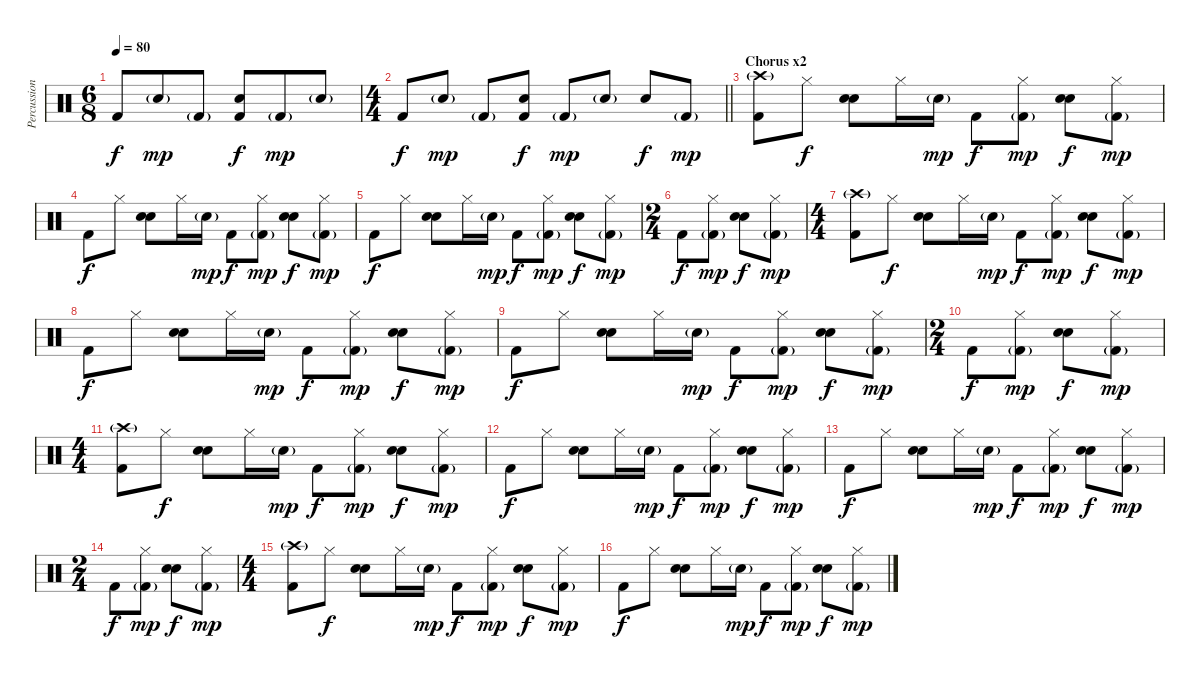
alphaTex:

\track ("Percussion" "Percussion") {instrument percussion}
\staff {score}
\articulation defaults
\ts (6 8)
\tempo 80
\clef neutral
\ks c "Kick (hit) 2".8{dy f} "Snare (hit) 2"{g}.8{dy mp} "Kick (hit) 2"{g}.8
("Snare (hit) 2" "Kick (hit) 2").8{dy f} "Kick (hit) 2"{g}.8{dy mp} "Snare (hit) 2"{g}.8 |
\ts (4 4)
\barLineRight lightlight "Kick (hit) 2".8{dy f} "Snare (hit) 2"{g}.8{dy mp} "Kick (hit) 2"{g}.8
("Snare (hit) 2" "Kick (hit) 2").8{dy f} "Kick (hit) 2"{g}.8{dy mp} "Snare (hit) 2"{g}.8 "Snare (hit) 2".8{dy f} "Kick (hit) 2"{g}.8{dy mp} |
\section ("" "Chorus x2")
("Crash high (hit)"{g} "Kick (hit) 2").8 "Hi-Hat (closed)".8{dy f} ("Snare (hit) 2" "Hand Clap (hit)").8 "Hi-Hat (closed)".16 "Snare (hit) 2"{g}.16{dy mp} "Kick (hit) 2".8{dy f} ("Hi-Hat (closed)" "Kick (hit) 2"{g}).8{dy mp} ("Snare (hit) 2" "Hand Clap (hit)").8{dy f} ("Hi-Hat (closed)" "Kick (hit) 2"{g}).8{dy mp} |
"Kick (hit) 2".8{dy f} "Hi-Hat (closed)".8 ("Snare (hit) 2" "Hand Clap (hit)").8 "Hi-Hat (closed)".16 "Snare (hit) 2"{g}.16{dy mp} "Kick (hit) 2".8{dy f} ("Hi-Hat (closed)" "Kick (hit) 2"{g}).8{dy mp} ("Snare (hit) 2" "Hand Clap (hit)").8{dy f} ("Hi-Hat (closed)" "Kick (hit) 2"{g}).8{dy mp} |
"Kick (hit) 2".8{dy f} "Hi-Hat (closed)".8 ("Snare (hit) 2" "Hand Clap (hit)").8 "Hi-Hat (closed)".16 "Snare (hit) 2"{g}.16{dy mp} "Kick (hit) 2".8{dy f} ("Hi-Hat (closed)" "Kick (hit) 2"{g}).8{dy mp} ("Snare (hit) 2" "Hand Clap (hit)").8{dy f} ("Hi-Hat (closed)" "Kick (hit) 2"{g}).8{dy mp} |
\ts (2 4)
"Kick (hit) 2".8{dy f} ("Hi-Hat (closed)" "Kick (hit) 2"{g}).8{dy mp} ("Snare (hit) 2" "Hand Clap (hit)").8{dy f} ("Hi-Hat (closed)" "Kick (hit) 2"{g}).8{dy mp} |
\ts (4 4)
("Crash high (hit)"{g} "Kick (hit) 2").8 "Hi-Hat (closed)".8{dy f} ("Snare (hit) 2" "Hand Clap (hit)").8 "Hi-Hat (closed)".16 "Snare (hit) 2"{g}.16{dy mp} "Kick (hit) 2".8{dy f} ("Hi-Hat (closed)" "Kick (hit) 2"{g}).8{dy mp} ("Snare (hit) 2" "Hand Clap (hit)").8{dy f} ("Hi-Hat (closed)" "Kick (hit) 2"{g}).8{dy mp} |
"Kick (hit) 2".8{dy f} "Hi-Hat (closed)".8 ("Snare (hit) 2" "Hand Clap (hit)").8 "Hi-Hat (closed)".16 "Snare (hit) 2"{g}.16{dy mp} "Kick (hit) 2".8{dy f} ("Hi-Hat (closed)" "Kick (hit) 2"{g}).8{dy mp} ("Snare (hit) 2" "Hand Clap (hit)").8{dy f} ("Hi-Hat (closed)" "Kick (hit) 2"{g}).8{dy mp} |
"Kick (hit) 2".8{dy f} "Hi-Hat (closed)".8 ("Snare (hit) 2" "Hand Clap (hit)").8 "Hi-Hat (closed)".16 "Snare (hit) 2"{g}.16{dy mp} "Kick (hit) 2".8{dy f} ("Hi-Hat (closed)" "Kick (hit) 2"{g}).8{dy mp} ("Snare (hit) 2" "Hand Clap (hit)").8{dy f} ("Hi-Hat (closed)" "Kick (hit) 2"{g}).8{dy mp} |
\ts (2 4)
"Kick (hit) 2".8{dy f} ("Hi-Hat (closed)" "Kick (hit) 2"{g}).8{dy mp} ("Snare (hit) 2" "Hand Clap (hit)").8{dy f} ("Hi-Hat (closed)" "Kick (hit) 2"{g}).8{dy mp} |
\ts (4 4)
("Crash high (hit)"{g} "Kick (hit) 2").8 "Hi-Hat (closed)".8{dy f} ("Snare (hit) 2" "Hand Clap (hit)").8 "Hi-Hat (closed)".16 "Snare (hit) 2"{g}.16{dy mp} "Kick (hit) 2".8{dy f} ("Hi-Hat (closed)" "Kick (hit) 2"{g}).8{dy mp} ("Snare (hit) 2" "Hand Clap (hit)").8{dy f} ("Hi-Hat (closed)" "Kick (hit) 2"{g}).8{dy mp} |
"Kick (hit) 2".8{dy f} "Hi-Hat (closed)".8 ("Snare (hit) 2" "Hand Clap (hit)").8 "Hi-Hat (closed)".16 "Snare (hit) 2"{g}.16{dy mp} "Kick (hit) 2".8{dy f} ("Hi-Hat (closed)" "Kick (hit) 2"{g}).8{dy mp} ("Snare (hit) 2" "Hand Clap (hit)").8{dy f} ("Hi-Hat (closed)" "Kick (hit) 2"{g}).8{dy mp} |
"Kick (hit) 2".8{dy f} "Hi-Hat (closed)".8 ("Snare (hit) 2" "Hand Clap (hit)").8 "Hi-Hat (closed)".16 "Snare (hit) 2"{g}.16{dy mp} "Kick (hit) 2".8{dy f} ("Hi-Hat (closed)" "Kick (hit) 2"{g}).8{dy mp} ("Snare (hit) 2" "Hand Clap (hit)").8{dy f} ("Hi-Hat (closed)" "Kick (hit) 2"{g}).8{dy mp} |
\ts (2 4)
"Kick (hit) 2".8{dy f} ("Hi-Hat (closed)" "Kick (hit) 2"{g}).8{dy mp} ("Snare (hit) 2" "Hand Clap (hit)").8{dy f} ("Hi-Hat (closed)" "Kick (hit) 2"{g}).8{dy mp} |
\ts (4 4)
("Crash high (hit)"{g} "Kick (hit) 2").8 "Hi-Hat (closed)".8{dy f} ("Snare (hit) 2" "Hand Clap (hit)").8 "Hi-Hat (closed)".16 "Snare (hit) 2"{g}.16{dy mp} "Kick (hit) 2".8{dy f} ("Hi-Hat (closed)" "Kick (hit) 2"{g}).8{dy mp} ("Snare (hit) 2" "Hand Clap (hit)").8{dy f} ("Hi-Hat (closed)" "Kick (hit) 2"{g}).8{dy mp} |
"Kick (hit) 2".8{dy f} "Hi-Hat (closed)".8 ("Snare (hit) 2" "Hand Clap (hit)").8 "Hi-Hat (closed)".16 "Snare (hit) 2"{g}.16{dy mp} "Kick (hit) 2".8{dy f} ("Hi-Hat (closed)" "Kick (hit) 2"{g}).8{dy mp} ("Snare (hit) 2" "Hand Clap (hit)").8{dy f} ("Hi-Hat (closed)" "Kick (hit) 2"{g}).8{dy mp}
